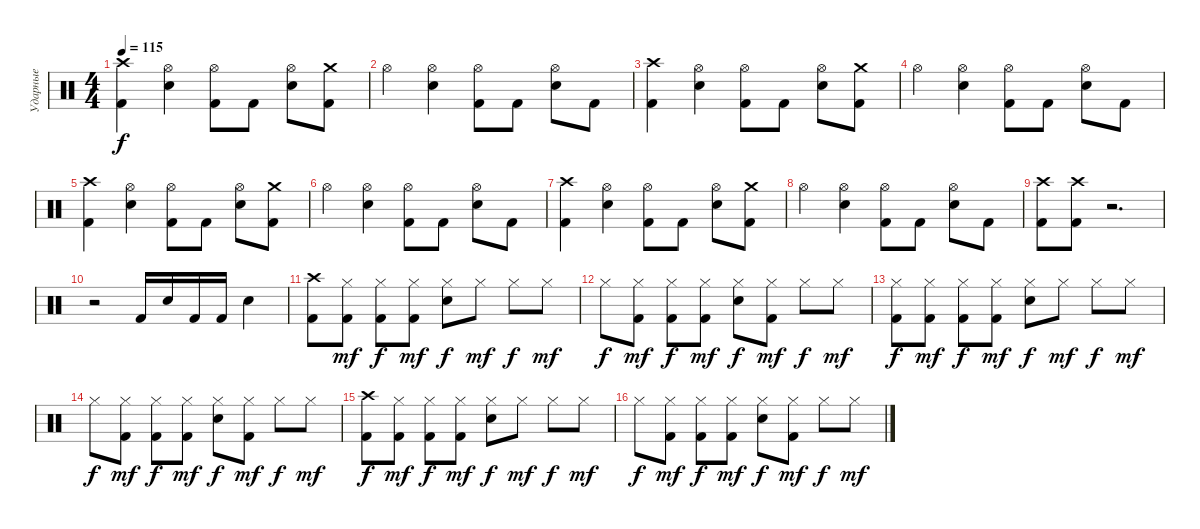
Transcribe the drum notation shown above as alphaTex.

\track ("Ударные" "Ударные") {instrument percussion}
\staff {score}
\articulation defaults
\ts (4 4)
\tempo 115
\clef neutral
\ks c
("Kick (hit) 2" "Crash high (hit)").4{dy f} ("Snare (hit) 2" "Hi-Hat (open)").4 ("Kick (hit) 2" "Hi-Hat (open)").8 "Kick (hit) 2".8 ("Snare (hit) 2" "Hi-Hat (open)").8 ("Kick (hit) 2" "Crash medium (hit)").8 |
"Hi-Hat (open)".4 ("Snare (hit) 2" "Hi-Hat (open)").4 ("Kick (hit) 2" "Hi-Hat (open)").8 "Kick (hit) 2".8 ("Snare (hit) 2" "Hi-Hat (open)").8 "Kick (hit) 2".8 |
("Kick (hit) 2" "Crash high (hit)").4 ("Snare (hit) 2" "Hi-Hat (open)").4 ("Kick (hit) 2" "Hi-Hat (open)").8 "Kick (hit) 2".8 ("Snare (hit) 2" "Hi-Hat (open)").8 ("Kick (hit) 2" "Crash medium (hit)").8 |
"Hi-Hat (open)".4 ("Snare (hit) 2" "Hi-Hat (open)").4 ("Kick (hit) 2" "Hi-Hat (open)").8 "Kick (hit) 2".8 ("Snare (hit) 2" "Hi-Hat (open)").8 "Kick (hit) 2".8 |
("Kick (hit) 2" "Crash high (hit)").4 ("Snare (hit) 2" "Hi-Hat (open)").4 ("Kick (hit) 2" "Hi-Hat (open)").8 "Kick (hit) 2".8 ("Snare (hit) 2" "Hi-Hat (open)").8 ("Kick (hit) 2" "Crash medium (hit)").8 |
"Hi-Hat (open)".4 ("Snare (hit) 2" "Hi-Hat (open)").4 ("Kick (hit) 2" "Hi-Hat (open)").8 "Kick (hit) 2".8 ("Snare (hit) 2" "Hi-Hat (open)").8 "Kick (hit) 2".8 |
("Kick (hit) 2" "Crash high (hit)").4 ("Snare (hit) 2" "Hi-Hat (open)").4 ("Kick (hit) 2" "Hi-Hat (open)").8 "Kick (hit) 2".8 ("Snare (hit) 2" "Hi-Hat (open)").8 ("Kick (hit) 2" "Crash medium (hit)").8 |
"Hi-Hat (open)".4 ("Snare (hit) 2" "Hi-Hat (open)").4 ("Kick (hit) 2" "Hi-Hat (open)").8 "Kick (hit) 2".8 ("Snare (hit) 2" "Hi-Hat (open)").8 "Kick (hit) 2".8 |
("Crash high (hit)" "Kick (hit) 2").8 ("Kick (hit) 2" "Crash high (hit)").8 r.2{d} |
r.2 "Kick (hit) 2".16 "Snare (hit) 2".16 "Kick (hit) 2".16 "Kick (hit) 2".16 "Snare (hit) 2".4 |
("Kick (hit) 2" "Crash high (hit)").8 ("Kick (hit) 2" "Hi-Hat (closed)").8{dy mf} ("Kick (hit) 2" "Hi-Hat (closed)").8{dy f} ("Kick (hit) 2" "Hi-Hat (closed)").8{dy mf} ("Snare (hit) 2" "Hi-Hat (closed)").8{dy f} "Hi-Hat (closed)".8{dy mf} "Hi-Hat (closed)".8{dy f} "Hi-Hat (closed)".8{dy mf} |
"Hi-Hat (closed)".8{dy f} ("Kick (hit) 2" "Hi-Hat (closed)").8{dy mf} ("Kick (hit) 2" "Hi-Hat (closed)").8{dy f} ("Kick (hit) 2" "Hi-Hat (closed)").8{dy mf} ("Snare (hit) 2" "Hi-Hat (closed)").8{dy f} ("Kick (hit) 2" "Hi-Hat (closed)").8{dy mf} "Hi-Hat (closed)".8{dy f} "Hi-Hat (closed)".8{dy mf} |
("Kick (hit) 2" "Hi-Hat (closed)").8{dy f} ("Kick (hit) 2" "Hi-Hat (closed)").8{dy mf} ("Kick (hit) 2" "Hi-Hat (closed)").8{dy f} ("Kick (hit) 2" "Hi-Hat (closed)").8{dy mf} ("Snare (hit) 2" "Hi-Hat (closed)").8{dy f} "Hi-Hat (closed)".8{dy mf} "Hi-Hat (closed)".8{dy f} "Hi-Hat (closed)".8{dy mf} |
"Hi-Hat (closed)".8{dy f} ("Kick (hit) 2" "Hi-Hat (closed)").8{dy mf} ("Kick (hit) 2" "Hi-Hat (closed)").8{dy f} ("Kick (hit) 2" "Hi-Hat (closed)").8{dy mf} ("Snare (hit) 2" "Hi-Hat (closed)").8{dy f} ("Kick (hit) 2" "Hi-Hat (closed)").8{dy mf} "Hi-Hat (closed)".8{dy f} "Hi-Hat (closed)".8{dy mf} |
("Kick (hit) 2" "Crash high (hit)").8{dy f} ("Kick (hit) 2" "Hi-Hat (closed)").8{dy mf} ("Kick (hit) 2" "Hi-Hat (closed)").8{dy f} ("Kick (hit) 2" "Hi-Hat (closed)").8{dy mf} ("Snare (hit) 2" "Hi-Hat (closed)").8{dy f} "Hi-Hat (closed)".8{dy mf} "Hi-Hat (closed)".8{dy f} "Hi-Hat (closed)".8{dy mf} |
"Hi-Hat (closed)".8{dy f} ("Kick (hit) 2" "Hi-Hat (closed)").8{dy mf} ("Kick (hit) 2" "Hi-Hat (closed)").8{dy f} ("Kick (hit) 2" "Hi-Hat (closed)").8{dy mf} ("Snare (hit) 2" "Hi-Hat (closed)").8{dy f} ("Kick (hit) 2" "Hi-Hat (closed)").8{dy mf} "Hi-Hat (closed)".8{dy f} "Hi-Hat (closed)".8{dy mf}
